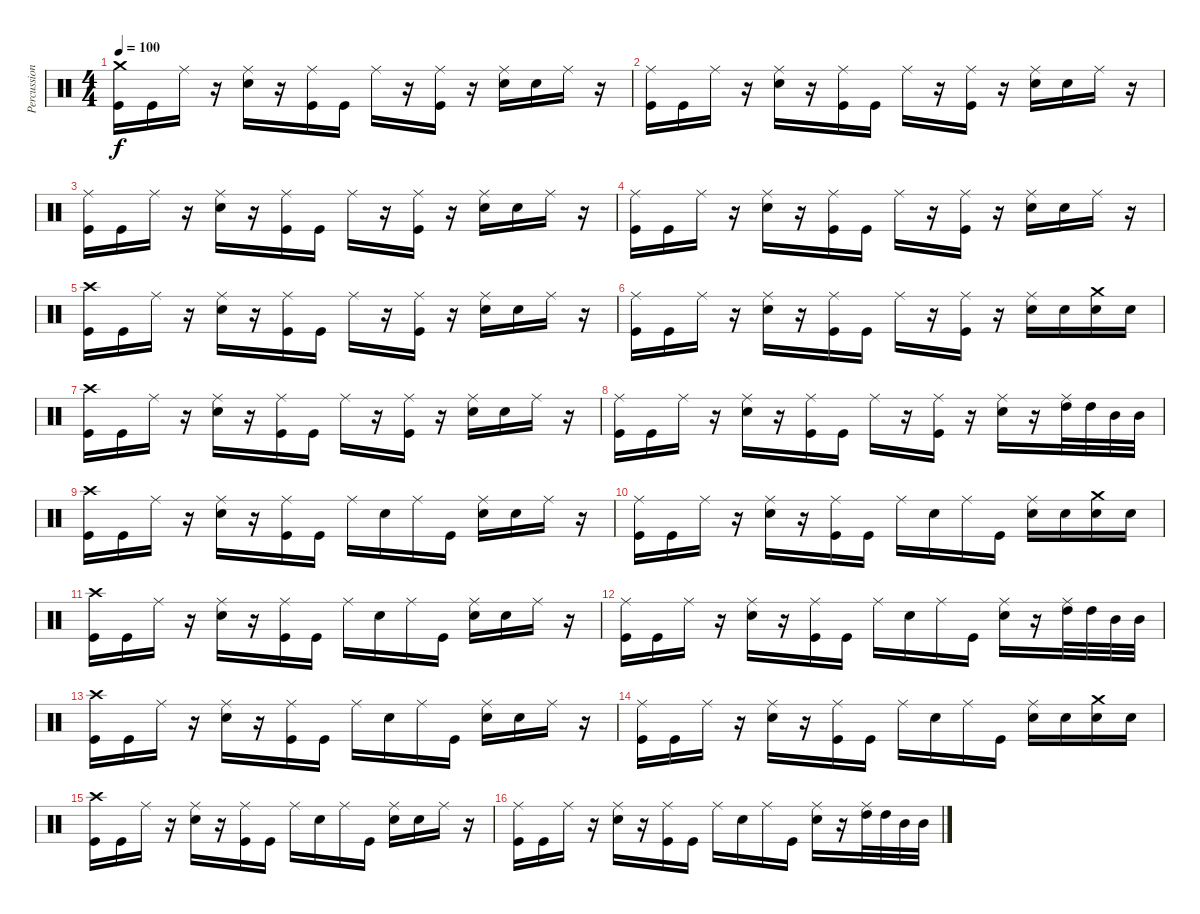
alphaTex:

\track ("Percussions" "Percussion") {instrument percussion}
\staff {score}
\articulation defaults
\ts (4 4)
\tempo 100
\clef neutral
\ks c
("Crash medium (hit)" "Kick (hit)").16{dy f} "Kick (hit)".16 "Ride (middle)".16 r.16 ("Ride (middle)" "Electric Snare (hit)").16 r.16 ("Ride (middle)" "Kick (hit)").16 "Kick (hit)".16 "Ride (middle)".16 r.16 ("Ride (middle)" "Kick (hit)").16 r.16 ("Ride (middle)" "Electric Snare (hit)").16 "Electric Snare (hit)".16 "Ride (middle)".16 r.16 |
("Ride (middle)" "Kick (hit)").16 "Kick (hit)".16 "Ride (middle)".16 r.16 ("Ride (middle)" "Electric Snare (hit)").16 r.16 ("Ride (middle)" "Kick (hit)").16 "Kick (hit)".16 "Ride (middle)".16 r.16 ("Ride (middle)" "Kick (hit)").16 r.16 ("Ride (middle)" "Electric Snare (hit)").16 "Electric Snare (hit)".16 "Ride (middle)".16 r.16 |
("Ride (middle)" "Kick (hit)").16 "Kick (hit)".16 "Ride (middle)".16 r.16 ("Ride (middle)" "Electric Snare (hit)").16 r.16 ("Ride (middle)" "Kick (hit)").16 "Kick (hit)".16 "Ride (middle)".16 r.16 ("Ride (middle)" "Kick (hit)").16 r.16 ("Ride (middle)" "Electric Snare (hit)").16 "Electric Snare (hit)".16 "Ride (middle)".16 r.16 |
("Ride (middle)" "Kick (hit)").16 "Kick (hit)".16 "Ride (middle)".16 r.16 ("Ride (middle)" "Electric Snare (hit)").16 r.16 ("Ride (middle)" "Kick (hit)").16 "Kick (hit)".16 "Ride (middle)".16 r.16 ("Ride (middle)" "Kick (hit)").16 r.16 ("Ride (middle)" "Electric Snare (hit)").16 "Electric Snare (hit)".16 "Ride (middle)".16 r.16 |
("Crash high (hit)" "Kick (hit)").16 "Kick (hit)".16 "Ride (middle)".16 r.16 ("Ride (middle)" "Snare (hit) 2").16 r.16 ("Ride (middle)" "Kick (hit)").16 "Kick (hit)".16 "Ride (middle)".16 r.16 ("Ride (middle)" "Kick (hit)").16 r.16 ("Ride (middle)" "Snare (hit) 2").16 "Snare (hit) 2".16 "Ride (middle)".16 r.16 |
("Ride (middle)" "Kick (hit)").16 "Kick (hit)".16 "Ride (middle)".16 r.16 ("Ride (middle)" "Snare (hit) 2").16 r.16 ("Ride (middle)" "Kick (hit)").16 "Kick (hit)".16 "Ride (middle)".16 r.16 ("Ride (middle)" "Kick (hit)").16 r.16 ("Ride (middle)" "Snare (hit) 2").16 "Snare (hit) 2".16 ("Crash medium (hit)" "Snare (hit) 2").16 "Snare (hit) 2".16 |
("Crash high (hit)" "Kick (hit)").16 "Kick (hit)".16 "Ride (middle)".16 r.16 ("Ride (middle)" "Snare (hit) 2").16 r.16 ("Ride (middle)" "Kick (hit)").16 "Kick (hit)".16 "Ride (middle)".16 r.16 ("Ride (middle)" "Kick (hit)").16 r.16 ("Ride (middle)" "Snare (hit) 2").16 "Snare (hit) 2".16 "Ride (middle)".16 r.16 |
("Ride (middle)" "Kick (hit)").16 "Kick (hit)".16 "Ride (middle)".16 r.16 ("Ride (middle)" "Snare (hit) 2").16 r.16 ("Ride (middle)" "Kick (hit)").16 "Kick (hit)".16 "Ride (middle)".16 r.16 ("Ride (middle)" "Kick (hit)").16 r.16 ("Ride (middle)" "Snare (hit) 2").16 r.16 ("Ride (middle)" "High Tom (hit)").32 "High Tom (hit)".32 "Mid Tom (hit)".32 "Mid Tom (hit)".32 |
("Crash high (hit)" "Kick (hit)").16 "Kick (hit)".16 "Ride (middle)".16 r.16 ("Ride (middle)" "Snare (hit) 2").16 r.16 ("Ride (middle)" "Kick (hit)").16 "Kick (hit)".16 "Ride (middle)".16 "Snare (hit) 2".16 "Ride (middle)".16 "Kick (hit)".16 ("Ride (middle)" "Snare (hit) 2").16 "Snare (hit) 2".16 "Ride (middle)".16 r.16 |
("Ride (middle)" "Kick (hit)").16 "Kick (hit)".16 "Ride (middle)".16 r.16 ("Ride (middle)" "Snare (hit) 2").16 r.16 ("Ride (middle)" "Kick (hit)").16 "Kick (hit)".16 "Ride (middle)".16 "Snare (hit) 2".16 "Ride (middle)".16 "Kick (hit)".16 ("Ride (middle)" "Snare (hit) 2").16 "Snare (hit) 2".16 ("Crash medium (hit)" "Snare (hit) 2").16 "Snare (hit) 2".16 |
("Crash high (hit)" "Kick (hit)").16 "Kick (hit)".16 "Ride (middle)".16 r.16 ("Ride (middle)" "Snare (hit) 2").16 r.16 ("Ride (middle)" "Kick (hit)").16 "Kick (hit)".16 "Ride (middle)".16 "Snare (hit) 2".16 "Ride (middle)".16 "Kick (hit)".16 ("Ride (middle)" "Snare (hit) 2").16 "Snare (hit) 2".16 "Ride (middle)".16 r.16 |
("Ride (middle)" "Kick (hit)").16 "Kick (hit)".16 "Ride (middle)".16 r.16 ("Ride (middle)" "Snare (hit) 2").16 r.16 ("Ride (middle)" "Kick (hit)").16 "Kick (hit)".16 "Ride (middle)".16 "Snare (hit) 2".16 "Ride (middle)".16 "Kick (hit)".16 ("Ride (middle)" "Snare (hit) 2").16 r.16 ("Ride (middle)" "High Tom (hit)").32 "High Tom (hit)".32 "Mid Tom (hit)".32 "Mid Tom (hit)".32 |
("Crash high (hit)" "Kick (hit)").16 "Kick (hit)".16 "Ride (middle)".16 r.16 ("Ride (middle)" "Snare (hit) 2").16 r.16 ("Ride (middle)" "Kick (hit)").16 "Kick (hit)".16 "Ride (middle)".16 "Snare (hit) 2".16 "Ride (middle)".16 "Kick (hit)".16 ("Ride (middle)" "Snare (hit) 2").16 "Snare (hit) 2".16 "Ride (middle)".16 r.16 |
("Ride (middle)" "Kick (hit)").16 "Kick (hit)".16 "Ride (middle)".16 r.16 ("Ride (middle)" "Snare (hit) 2").16 r.16 ("Ride (middle)" "Kick (hit)").16 "Kick (hit)".16 "Ride (middle)".16 "Snare (hit) 2".16 "Ride (middle)".16 "Kick (hit)".16 ("Ride (middle)" "Snare (hit) 2").16 "Snare (hit) 2".16 ("Crash medium (hit)" "Snare (hit) 2").16 "Snare (hit) 2".16 |
("Crash high (hit)" "Kick (hit)").16 "Kick (hit)".16 "Ride (middle)".16 r.16 ("Ride (middle)" "Snare (hit) 2").16 r.16 ("Ride (middle)" "Kick (hit)").16 "Kick (hit)".16 "Ride (middle)".16 "Snare (hit) 2".16 "Ride (middle)".16 "Kick (hit)".16 ("Ride (middle)" "Snare (hit) 2").16 "Snare (hit) 2".16 "Ride (middle)".16 r.16 |
("Ride (middle)" "Kick (hit)").16 "Kick (hit)".16 "Ride (middle)".16 r.16 ("Ride (middle)" "Snare (hit) 2").16 r.16 ("Ride (middle)" "Kick (hit)").16 "Kick (hit)".16 "Ride (middle)".16 "Snare (hit) 2".16 "Ride (middle)".16 "Kick (hit)".16 ("Ride (middle)" "Snare (hit) 2").16 r.16 ("Ride (middle)" "High Tom (hit)").32 "High Tom (hit)".32 "Mid Tom (hit)".32 "Mid Tom (hit)".32
